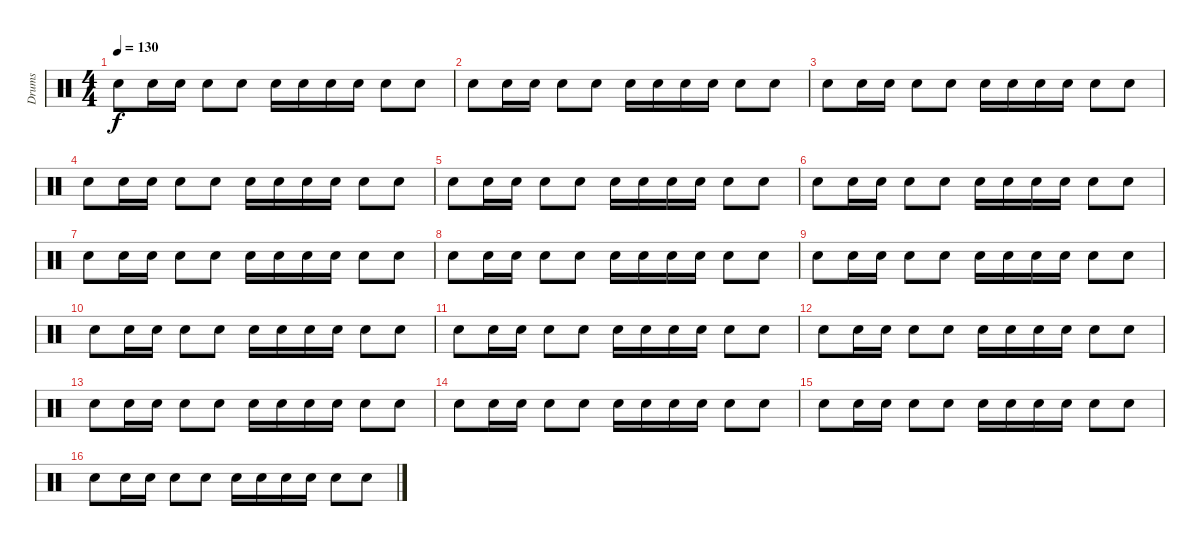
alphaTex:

\track ("Drums" "Drums") {instrument percussion}
\staff {score}
\articulation defaults
\ts (4 4)
\tempo 130
\clef neutral
\ks c "Snare (hit) 2".8{dy f} "Snare (hit) 2".16 "Snare (hit) 2".16 "Snare (hit) 2".8 "Snare (hit) 2".8 "Snare (hit) 2".16 "Snare (hit) 2".16 "Snare (hit) 2".16 "Snare (hit) 2".16 "Snare (hit) 2".8 "Snare (hit) 2".8
|
"Snare (hit) 2".8 "Snare (hit) 2".16 "Snare (hit) 2".16 "Snare (hit) 2".8 "Snare (hit) 2".8 "Snare (hit) 2".16 "Snare (hit) 2".16 "Snare (hit) 2".16 "Snare (hit) 2".16 "Snare (hit) 2".8 "Snare (hit) 2".8 |
"Snare (hit) 2".8 "Snare (hit) 2".16 "Snare (hit) 2".16 "Snare (hit) 2".8 "Snare (hit) 2".8 "Snare (hit) 2".16 "Snare (hit) 2".16 "Snare (hit) 2".16 "Snare (hit) 2".16 "Snare (hit) 2".8 "Snare (hit) 2".8 |
"Snare (hit) 2".8 "Snare (hit) 2".16 "Snare (hit) 2".16 "Snare (hit) 2".8 "Snare (hit) 2".8 "Snare (hit) 2".16 "Snare (hit) 2".16 "Snare (hit) 2".16 "Snare (hit) 2".16 "Snare (hit) 2".8 "Snare (hit) 2".8 |
"Snare (hit) 2".8 "Snare (hit) 2".16 "Snare (hit) 2".16 "Snare (hit) 2".8 "Snare (hit) 2".8 "Snare (hit) 2".16 "Snare (hit) 2".16 "Snare (hit) 2".16 "Snare (hit) 2".16 "Snare (hit) 2".8 "Snare (hit) 2".8 |
"Snare (hit) 2".8 "Snare (hit) 2".16 "Snare (hit) 2".16 "Snare (hit) 2".8 "Snare (hit) 2".8 "Snare (hit) 2".16 "Snare (hit) 2".16 "Snare (hit) 2".16 "Snare (hit) 2".16 "Snare (hit) 2".8 "Snare (hit) 2".8 |
"Snare (hit) 2".8 "Snare (hit) 2".16 "Snare (hit) 2".16 "Snare (hit) 2".8 "Snare (hit) 2".8 "Snare (hit) 2".16 "Snare (hit) 2".16 "Snare (hit) 2".16 "Snare (hit) 2".16 "Snare (hit) 2".8 "Snare (hit) 2".8 |
"Snare (hit) 2".8 "Snare (hit) 2".16 "Snare (hit) 2".16 "Snare (hit) 2".8 "Snare (hit) 2".8 "Snare (hit) 2".16 "Snare (hit) 2".16 "Snare (hit) 2".16 "Snare (hit) 2".16 "Snare (hit) 2".8 "Snare (hit) 2".8 |
"Snare (hit) 2".8 "Snare (hit) 2".16 "Snare (hit) 2".16 "Snare (hit) 2".8 "Snare (hit) 2".8 "Snare (hit) 2".16 "Snare (hit) 2".16 "Snare (hit) 2".16 "Snare (hit) 2".16 "Snare (hit) 2".8 "Snare (hit) 2".8 |
"Snare (hit) 2".8 "Snare (hit) 2".16 "Snare (hit) 2".16 "Snare (hit) 2".8 "Snare (hit) 2".8 "Snare (hit) 2".16 "Snare (hit) 2".16 "Snare (hit) 2".16 "Snare (hit) 2".16 "Snare (hit) 2".8 "Snare (hit) 2".8 |
"Snare (hit) 2".8 "Snare (hit) 2".16 "Snare (hit) 2".16 "Snare (hit) 2".8 "Snare (hit) 2".8 "Snare (hit) 2".16 "Snare (hit) 2".16 "Snare (hit) 2".16 "Snare (hit) 2".16 "Snare (hit) 2".8 "Snare (hit) 2".8 |
"Snare (hit) 2".8 "Snare (hit) 2".16 "Snare (hit) 2".16 "Snare (hit) 2".8 "Snare (hit) 2".8 "Snare (hit) 2".16 "Snare (hit) 2".16 "Snare (hit) 2".16 "Snare (hit) 2".16 "Snare (hit) 2".8 "Snare (hit) 2".8 |
"Snare (hit) 2".8 "Snare (hit) 2".16 "Snare (hit) 2".16 "Snare (hit) 2".8 "Snare (hit) 2".8 "Snare (hit) 2".16 "Snare (hit) 2".16 "Snare (hit) 2".16 "Snare (hit) 2".16 "Snare (hit) 2".8 "Snare (hit) 2".8 |
"Snare (hit) 2".8 "Snare (hit) 2".16 "Snare (hit) 2".16 "Snare (hit) 2".8 "Snare (hit) 2".8 "Snare (hit) 2".16 "Snare (hit) 2".16 "Snare (hit) 2".16 "Snare (hit) 2".16 "Snare (hit) 2".8 "Snare (hit) 2".8 |
"Snare (hit) 2".8 "Snare (hit) 2".16 "Snare (hit) 2".16 "Snare (hit) 2".8 "Snare (hit) 2".8 "Snare (hit) 2".16 "Snare (hit) 2".16 "Snare (hit) 2".16 "Snare (hit) 2".16 "Snare (hit) 2".8 "Snare (hit) 2".8 |
"Snare (hit) 2".8 "Snare (hit) 2".16 "Snare (hit) 2".16 "Snare (hit) 2".8 "Snare (hit) 2".8 "Snare (hit) 2".16 "Snare (hit) 2".16 "Snare (hit) 2".16 "Snare (hit) 2".16 "Snare (hit) 2".8 "Snare (hit) 2".8
